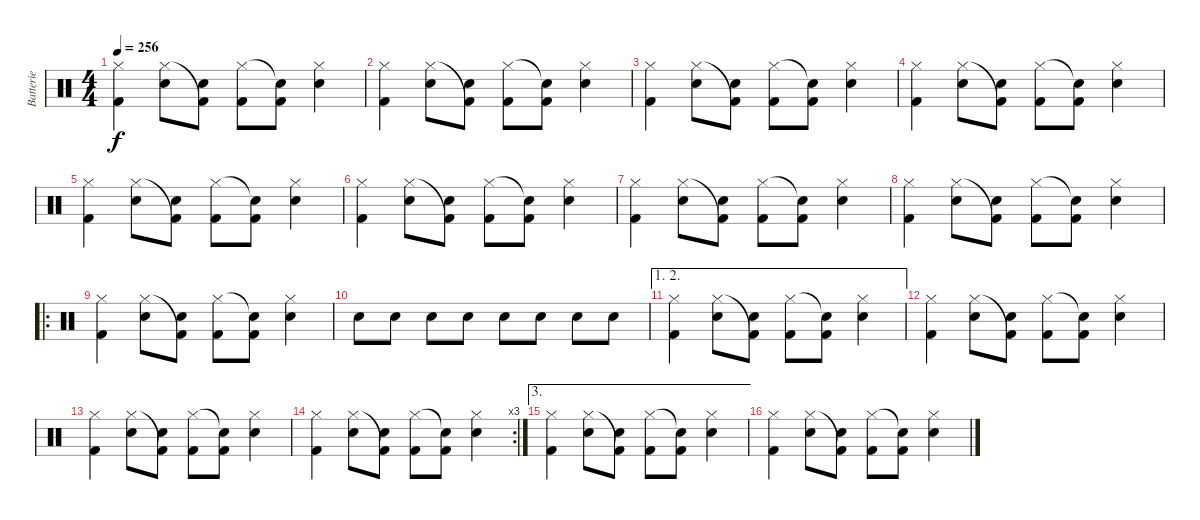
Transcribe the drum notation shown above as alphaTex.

\track ("Batterie" "Batterie") {instrument percussion}
\staff {score}
\articulation defaults
\ts (4 4)
\tempo 256
\clef neutral
\ks c
("Hi-Hat (closed)" "Kick (hit) 2").4{dy f} ("Hi-Hat (closed)" "Snare (hit) 2").8 ("Kick (hit) 2"{t} "Snare (hit) 2").8 ("Hi-Hat (closed)" "Kick (hit) 2").8 ("Snare (hit)"{t} "Kick (hit) 2").8 ("Hi-Hat (closed)" "Snare (hit) 2").4 |
("Hi-Hat (closed)" "Kick (hit) 2").4 ("Hi-Hat (closed)" "Snare (hit) 2").8 ("Kick (hit) 2"{t} "Snare (hit) 2").8 ("Hi-Hat (closed)" "Kick (hit) 2").8 ("Snare (hit)"{t} "Kick (hit) 2").8 ("Hi-Hat (closed)" "Snare (hit) 2").4 |
("Hi-Hat (closed)" "Kick (hit) 2").4 ("Hi-Hat (closed)" "Snare (hit) 2").8 ("Kick (hit) 2"{t} "Snare (hit) 2").8 ("Hi-Hat (closed)" "Kick (hit) 2").8 ("Snare (hit)"{t} "Kick (hit) 2").8 ("Hi-Hat (closed)" "Snare (hit) 2").4 |
("Hi-Hat (closed)" "Kick (hit) 2").4 ("Hi-Hat (closed)" "Snare (hit) 2").8 ("Kick (hit) 2"{t} "Snare (hit) 2").8 ("Hi-Hat (closed)" "Kick (hit) 2").8 ("Snare (hit)"{t} "Kick (hit) 2").8 ("Hi-Hat (closed)" "Snare (hit) 2").4 |
("Hi-Hat (closed)" "Kick (hit) 2").4 ("Hi-Hat (closed)" "Snare (hit) 2").8 ("Kick (hit) 2"{t} "Snare (hit) 2").8 ("Hi-Hat (closed)" "Kick (hit) 2").8 ("Snare (hit)"{t} "Kick (hit) 2").8 ("Hi-Hat (closed)" "Snare (hit) 2").4 |
("Hi-Hat (closed)" "Kick (hit) 2").4 ("Hi-Hat (closed)" "Snare (hit) 2").8 ("Kick (hit) 2"{t} "Snare (hit) 2").8 ("Hi-Hat (closed)" "Kick (hit) 2").8 ("Snare (hit)"{t} "Kick (hit) 2").8 ("Hi-Hat (closed)" "Snare (hit) 2").4 |
("Hi-Hat (closed)" "Kick (hit) 2").4 ("Hi-Hat (closed)" "Snare (hit) 2").8 ("Kick (hit) 2"{t} "Snare (hit) 2").8 ("Hi-Hat (closed)" "Kick (hit) 2").8 ("Snare (hit)"{t} "Kick (hit) 2").8 ("Hi-Hat (closed)" "Snare (hit) 2").4 |
("Hi-Hat (closed)" "Kick (hit) 2").4 ("Hi-Hat (closed)" "Snare (hit) 2").8 ("Kick (hit) 2"{t} "Snare (hit) 2").8 ("Hi-Hat (closed)" "Kick (hit) 2").8 ("Snare (hit)"{t} "Kick (hit) 2").8 ("Hi-Hat (closed)" "Snare (hit) 2").4 |
\ro
("Hi-Hat (closed)" "Kick (hit) 2").4 ("Hi-Hat (closed)" "Snare (hit) 2").8 ("Kick (hit) 2"{t} "Snare (hit) 2").8 ("Hi-Hat (closed)" "Kick (hit) 2").8 ("Snare (hit)"{t} "Kick (hit) 2").8 ("Hi-Hat (closed)" "Snare (hit) 2").4 |
"Snare (hit) 2".8 "Snare (hit) 2".8 "Snare (hit) 2".8 "Snare (hit) 2".8 "Snare (hit) 2".8 "Snare (hit) 2".8 "Snare (hit) 2".8 "Snare (hit) 2".8 |
\ae (1 2)
("Hi-Hat (closed)" "Kick (hit) 2").4 ("Hi-Hat (closed)" "Snare (hit) 2").8 ("Kick (hit) 2"{t} "Snare (hit) 2").8 ("Hi-Hat (closed)" "Kick (hit) 2").8 ("Snare (hit)"{t} "Kick (hit) 2").8 ("Hi-Hat (closed)" "Snare (hit) 2").4 |
("Hi-Hat (closed)" "Kick (hit) 2").4 ("Hi-Hat (closed)" "Snare (hit) 2").8 ("Kick (hit) 2"{t} "Snare (hit) 2").8 ("Hi-Hat (closed)" "Kick (hit) 2").8 ("Snare (hit)"{t} "Kick (hit) 2").8 ("Hi-Hat (closed)" "Snare (hit) 2").4 |
("Hi-Hat (closed)" "Kick (hit) 2").4 ("Hi-Hat (closed)" "Snare (hit) 2").8 ("Kick (hit) 2"{t} "Snare (hit) 2").8 ("Hi-Hat (closed)" "Kick (hit) 2").8 ("Snare (hit)"{t} "Kick (hit) 2").8 ("Hi-Hat (closed)" "Snare (hit) 2").4 |
\rc 3
("Hi-Hat (closed)" "Kick (hit) 2").4 ("Hi-Hat (closed)" "Snare (hit) 2").8 ("Kick (hit) 2"{t} "Snare (hit) 2").8 ("Hi-Hat (closed)" "Kick (hit) 2").8 ("Snare (hit)"{t} "Kick (hit) 2").8 ("Hi-Hat (closed)" "Snare (hit) 2").4 |
\ae 3
("Hi-Hat (closed)" "Kick (hit) 2").4 ("Hi-Hat (closed)" "Snare (hit) 2").8 ("Kick (hit) 2"{t} "Snare (hit) 2").8 ("Hi-Hat (closed)" "Kick (hit) 2").8 ("Snare (hit)"{t} "Kick (hit) 2").8 ("Hi-Hat (closed)" "Snare (hit) 2").4 |
("Hi-Hat (closed)" "Kick (hit) 2").4 ("Hi-Hat (closed)" "Snare (hit) 2").8 ("Kick (hit) 2"{t} "Snare (hit) 2").8 ("Hi-Hat (closed)" "Kick (hit) 2").8 ("Snare (hit)"{t} "Kick (hit) 2").8 ("Hi-Hat (closed)" "Snare (hit) 2").4
